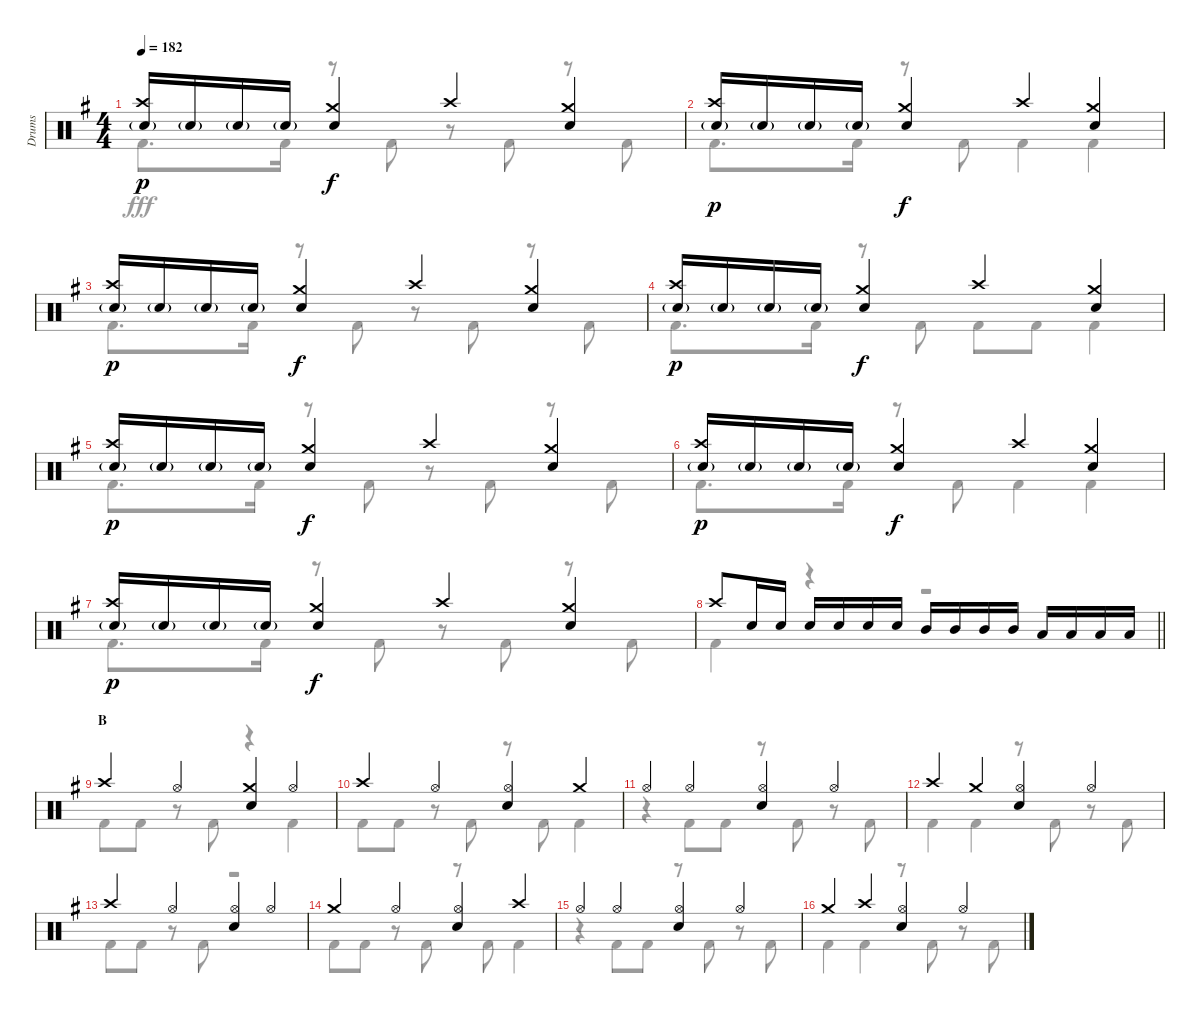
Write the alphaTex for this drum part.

\track ("Drums" "Drums") {instrument percussion}
\staff {score}
\articulation defaults
\voice
\ts (4 4)
\tempo 182
\clef neutral
\ks g
("Crash high (hit)" "Snare (hit) 2"{g}).16{dy p} "Snare (hit) 2"{g}.16 "Snare (hit) 2"{g}.16 "Snare (hit) 2"{g}.16 ("Crash medium (hit)" "Snare (hit) 2").4{dy f} "Crash high (hit)".4 ("Crash medium (hit)" "Snare (hit) 2").4 |
("Crash high (hit)" "Snare (hit) 2"{g}).16{dy p} "Snare (hit) 2"{g}.16 "Snare (hit) 2"{g}.16 "Snare (hit) 2"{g}.16 ("Crash medium (hit)" "Snare (hit) 2").4{dy f} "Crash high (hit)".4 ("Crash medium (hit)" "Snare (hit) 2").4 |
("Crash high (hit)" "Snare (hit) 2"{g}).16{dy p} "Snare (hit) 2"{g}.16 "Snare (hit) 2"{g}.16 "Snare (hit) 2"{g}.16 ("Crash medium (hit)" "Snare (hit) 2").4{dy f} "Crash high (hit)".4 ("Crash medium (hit)" "Snare (hit) 2").4 |
("Crash high (hit)" "Snare (hit) 2"{g}).16{dy p} "Snare (hit) 2"{g}.16 "Snare (hit) 2"{g}.16 "Snare (hit) 2"{g}.16 ("Crash medium (hit)" "Snare (hit) 2").4{dy f} "Crash high (hit)".4 ("Crash medium (hit)" "Snare (hit) 2").4 |
("Crash high (hit)" "Snare (hit) 2"{g}).16{dy p} "Snare (hit) 2"{g}.16 "Snare (hit) 2"{g}.16 "Snare (hit) 2"{g}.16 ("Crash medium (hit)" "Snare (hit) 2").4{dy f} "Crash high (hit)".4 ("Crash medium (hit)" "Snare (hit) 2").4 |
("Crash high (hit)" "Snare (hit) 2"{g}).16{dy p} "Snare (hit) 2"{g}.16 "Snare (hit) 2"{g}.16 "Snare (hit) 2"{g}.16 ("Crash medium (hit)" "Snare (hit) 2").4{dy f} "Crash high (hit)".4 ("Crash medium (hit)" "Snare (hit) 2").4 |
("Crash high (hit)" "Snare (hit) 2"{g}).16{dy p} "Snare (hit) 2"{g}.16 "Snare (hit) 2"{g}.16 "Snare (hit) 2"{g}.16 ("Crash medium (hit)" "Snare (hit) 2").4{dy f} "Crash high (hit)".4 ("Crash medium (hit)" "Snare (hit) 2").4 |
\barLineRight lightlight "Crash high (hit)".8 "Snare (hit) 2".16 "Snare (hit) 2".16 "Snare (hit) 2".16 "Snare (hit) 2".16 "Snare (hit) 2".16 "Snare (hit) 2".16 "Mid Tom (hit)".16 "Mid Tom (hit)".16 "Mid Tom (hit)".16 "Mid Tom (hit)".16 "Low Tom (hit)".16 "Low Tom (hit)".16 "Low Tom (hit)".16 "Low Tom (hit)".16
|
\section ("" "B")
"Crash high (hit)".4 "Hi-Hat (open)".4 ("Crash medium (hit)" "Snare (hit) 2").4 "Hi-Hat (open)".4 |
"Crash high (hit)".4 "Hi-Hat (open)".4 ("Hi-Hat (open)" "Snare (hit) 2").4 "Crash medium (hit)".4 |
"Hi-Hat (open)".4 "Hi-Hat (open)".4 ("Hi-Hat (open)" "Snare (hit) 2").4 "Hi-Hat (open)".4 |
"Crash high (hit)".4 "Crash medium (hit)".4 ("Hi-Hat (open)" "Snare (hit) 2").4 "Hi-Hat (open)".4 |
"Crash high (hit)".4 "Hi-Hat (open)".4 ("Hi-Hat (open)" "Snare (hit) 2").4 "Hi-Hat (open)".4 |
"Crash medium (hit)".4 "Hi-Hat (open)".4 ("Hi-Hat (open)" "Snare (hit) 2").4 "Crash high (hit)".4 |
"Hi-Hat (open)".4 "Hi-Hat (open)".4 ("Hi-Hat (open)" "Snare (hit) 2").4 "Hi-Hat (open)".4 |
"Crash medium (hit)".4 "Crash high (hit)".4 ("Hi-Hat (open)" "Snare (hit) 2").4 "Hi-Hat (open)".4
\voice
\clef neutral
\ottava regular
\simile none
\ks g "Kick (hit) 2".8{d dy fff} "Kick (hit) 2".16
r.8 "Kick (hit) 2".8 r.8 "Kick (hit) 2".8 r.8 "Kick (hit) 2".8 |
"Kick (hit) 2".8{d} "Kick (hit) 2".16 r.8 "Kick (hit) 2".8 "Kick (hit) 2".4 "Kick (hit) 2".4 |
"Kick (hit) 2".8{d} "Kick (hit) 2".16 r.8 "Kick (hit) 2".8 r.8 "Kick (hit) 2".8 r.8 "Kick (hit) 2".8 |
"Kick (hit) 2".8{d} "Kick (hit) 2".16 r.8 "Kick (hit) 2".8 "Kick (hit) 2".8 "Kick (hit) 2".8 "Kick (hit) 2".4 |
"Kick (hit) 2".8{d} "Kick (hit) 2".16 r.8 "Kick (hit) 2".8 r.8 "Kick (hit) 2".8 r.8 "Kick (hit) 2".8 |
"Kick (hit) 2".8{d} "Kick (hit) 2".16 r.8 "Kick (hit) 2".8 "Kick (hit) 2".4 "Kick (hit) 2".4 |
"Kick (hit) 2".8{d} "Kick (hit) 2".16 r.8 "Kick (hit) 2".8 r.8 "Kick (hit) 2".8 r.8 "Kick (hit) 2".8 |
\barLineRight lightlight "Kick (hit) 2".4
r.4 r.2 |
"Kick (hit) 2".8 "Kick (hit) 2".8 r.8 "Kick (hit) 2".8 r.4 "Kick (hit) 2".4 |
"Kick (hit) 2".8 "Kick (hit) 2".8 r.8 "Kick (hit) 2".8 r.8 "Kick (hit) 2".8 "Kick (hit) 2".4 |
r.4 "Kick (hit) 2".8 "Kick (hit) 2".8 r.8 "Kick (hit) 2".8 r.8 "Kick (hit) 2".8 |
"Kick (hit) 2".4 "Kick (hit) 2".4 r.8 "Kick (hit) 2".8 r.8 "Kick (hit) 2".8 |
"Kick (hit) 2".8 "Kick (hit) 2".8 r.8 "Kick (hit) 2".8 r.2 |
"Kick (hit) 2".8 "Kick (hit) 2".8 r.8 "Kick (hit) 2".8 r.8 "Kick (hit) 2".8 "Kick (hit) 2".4 |
r.4 "Kick (hit) 2".8 "Kick (hit) 2".8 r.8 "Kick (hit) 2".8 r.8 "Kick (hit) 2".8 |
"Kick (hit) 2".4 "Kick (hit) 2".4 r.8 "Kick (hit) 2".8 r.8 "Kick (hit) 2".8
